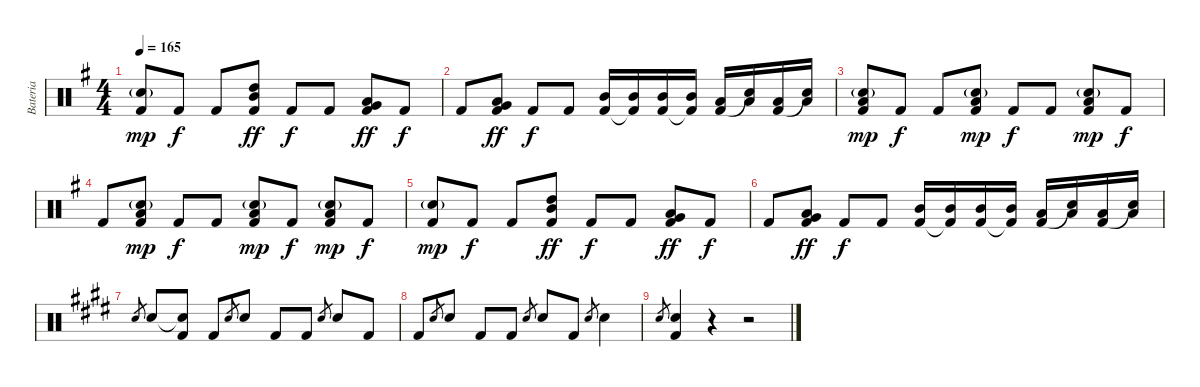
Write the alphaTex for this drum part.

\track ("Bateria" "Bateria") {instrument percussion}
\staff {score}
\articulation defaults
\ts (4 4)
\tempo 165
\clef neutral
\ks g
("Electric Snare (hit)"{g} "Kick (hit) 2").8{dy mp} "Kick (hit) 2".8{dy f} "Kick (hit) 2".8 ("Mid Tom (hit)" "High Tom (hit)" "Kick (hit) 2").8{dy ff} "Kick (hit) 2".8{dy f} "Kick (hit) 2".8 ("Low Tom (hit)" "Very Low Tom (hit)" "Kick (hit) 2").8{dy ff} "Kick (hit) 2".8{dy f} |
"Kick (hit) 2".8 ("Low Tom (hit)" "Very Low Tom (hit)" "Kick (hit) 2").8{dy ff} "Kick (hit) 2".8{dy f} "Kick (hit) 2".8 ("Mid Tom (hit)" "Kick (hit) 2").16 ("Mid Tom (hit)" "Kick (hit) 2"{t}).16 ("Mid Tom (hit)" "Kick (hit) 2").16 ("Mid Tom (hit)" "Kick (hit) 2"{t}).16 ("Low Tom (hit)" "Kick (hit) 2").16 ("Low Tom (hit)" "Snare (hit)"{t}).16 ("Low Tom (hit)" "Kick (hit) 2").16 ("Low Tom (hit)" "Snare (hit)"{t}).16 |
("Electric Snare (hit)"{g} "Low Tom (hit)" "Kick (hit) 2").8{dy mp} "Kick (hit) 2".8{dy f} "Kick (hit) 2".8 ("Electric Snare (hit)"{g} "Low Tom (hit)" "Kick (hit) 2").8{dy mp} "Kick (hit) 2".8{dy f} "Kick (hit) 2".8 ("Electric Snare (hit)"{g} "Low Tom (hit)" "Kick (hit) 2").8{dy mp} "Kick (hit) 2".8{dy f} |
"Kick (hit) 2".8 ("Electric Snare (hit)"{g} "Low Tom (hit)" "Kick (hit) 2").8{dy mp} "Kick (hit) 2".8{dy f} "Kick (hit) 2".8 ("Electric Snare (hit)"{g} "Low Tom (hit)" "Kick (hit) 2").8{dy mp} "Kick (hit) 2".8{dy f} ("Electric Snare (hit)"{g} "Low Tom (hit)" "Kick (hit) 2").8{dy mp} "Kick (hit) 2".8{dy f} |
("Electric Snare (hit)"{g} "Kick (hit) 2").8{dy mp} "Kick (hit) 2".8{dy f} "Kick (hit) 2".8 ("Mid Tom (hit)" "High Tom (hit)" "Kick (hit) 2").8{dy ff} "Kick (hit) 2".8{dy f} "Kick (hit) 2".8 ("Low Tom (hit)" "Very Low Tom (hit)" "Kick (hit) 2").8{dy ff} "Kick (hit) 2".8{dy f} |
"Kick (hit) 2".8 ("Low Tom (hit)" "Very Low Tom (hit)" "Kick (hit) 2").8{dy ff} "Kick (hit) 2".8{dy f} "Kick (hit) 2".8 ("Mid Tom (hit)" "Kick (hit) 2").16 ("Mid Tom (hit)" "Kick (hit) 2"{t}).16 ("Mid Tom (hit)" "Kick (hit) 2").16 ("Mid Tom (hit)" "Kick (hit) 2"{t}).16 ("Low Tom (hit)" "Kick (hit) 2").16 ("Low Tom (hit)" "Snare (hit)"{t}).16 ("Low Tom (hit)" "Kick (hit) 2").16 ("Low Tom (hit)" "Snare (hit)"{t}).16 |
\ks e "Electric Snare (hit)".8{gr} "Electric Snare (hit)".8
("Snare (hit)"{t} "Kick (hit) 2").8 "Kick (hit) 2".8 "Electric Snare (hit)".8{gr} "Electric Snare (hit)".8 "Kick (hit) 2".8 "Kick (hit) 2".8 "Electric Snare (hit)".8{gr} "Electric Snare (hit)".8 "Kick (hit) 2".8 |
"Kick (hit) 2".8 "Electric Snare (hit)".8{gr} "Electric Snare (hit)".8 "Kick (hit) 2".8 "Kick (hit) 2".8 "Electric Snare (hit)".8{gr} "Electric Snare (hit)".8 "Kick (hit) 2".8 "Electric Snare (hit)".8{gr} "Electric Snare (hit)".4 |
"Electric Snare (hit)".8{gr} ("Electric Snare (hit)" "Kick (hit) 2").4 r.4 r.2
